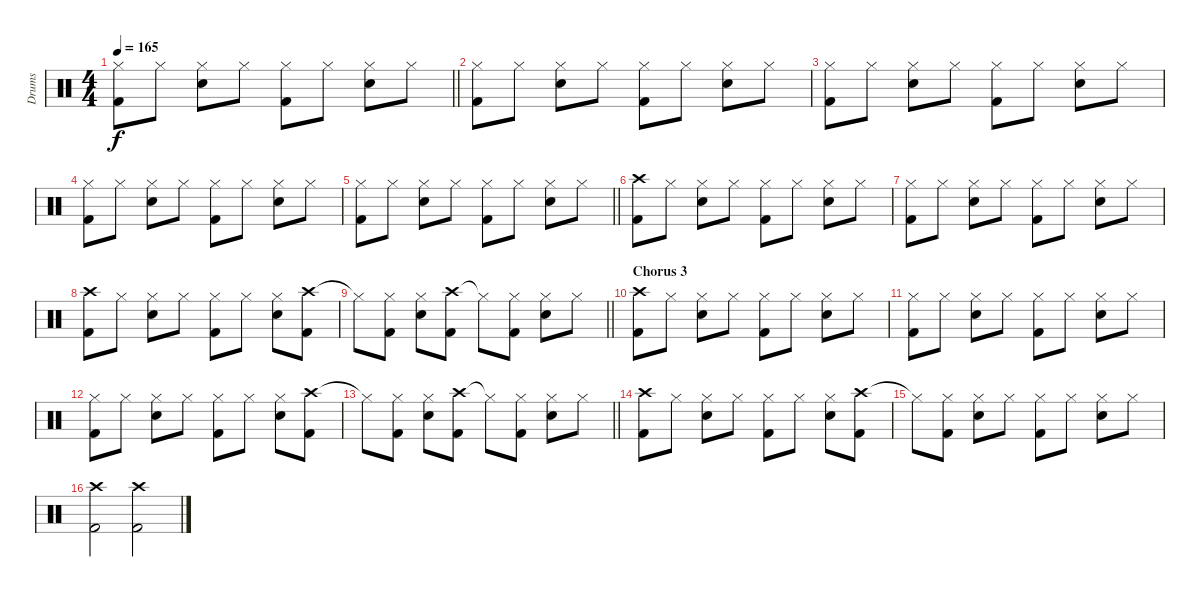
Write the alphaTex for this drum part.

\track ("Drums" "Drums") {instrument percussion}
\staff {score}
\articulation defaults
\ts (4 4)
\tempo 165
\clef neutral
\barLineRight lightlight
\ks c
("Hi-Hat (closed)" "Kick (hit) 2").8{dy f} "Hi-Hat (closed)".8 ("Hi-Hat (closed)" "Snare (hit) 2").8 "Hi-Hat (closed)".8 ("Hi-Hat (closed)" "Kick (hit) 2").8 "Hi-Hat (closed)".8 ("Hi-Hat (closed)" "Snare (hit) 2").8 "Hi-Hat (closed)".8 |
("Hi-Hat (closed)" "Kick (hit) 2").8 "Hi-Hat (closed)".8 ("Hi-Hat (closed)" "Snare (hit) 2").8 "Hi-Hat (closed)".8 ("Hi-Hat (closed)" "Kick (hit) 2").8 "Hi-Hat (closed)".8 ("Hi-Hat (closed)" "Snare (hit) 2").8 "Hi-Hat (closed)".8 |
("Hi-Hat (closed)" "Kick (hit) 2").8 "Hi-Hat (closed)".8 ("Hi-Hat (closed)" "Snare (hit) 2").8 "Hi-Hat (closed)".8 ("Hi-Hat (closed)" "Kick (hit) 2").8 "Hi-Hat (closed)".8 ("Hi-Hat (closed)" "Snare (hit) 2").8 "Hi-Hat (closed)".8 |
("Hi-Hat (closed)" "Kick (hit) 2").8 "Hi-Hat (closed)".8 ("Hi-Hat (closed)" "Snare (hit) 2").8 "Hi-Hat (closed)".8 ("Hi-Hat (closed)" "Kick (hit) 2").8 "Hi-Hat (closed)".8 ("Hi-Hat (closed)" "Snare (hit) 2").8 "Hi-Hat (closed)".8 |
\barLineRight lightlight
("Hi-Hat (closed)" "Kick (hit) 2").8 "Hi-Hat (closed)".8 ("Hi-Hat (closed)" "Snare (hit) 2").8 "Hi-Hat (closed)".8 ("Hi-Hat (closed)" "Kick (hit) 2").8 "Hi-Hat (closed)".8 ("Hi-Hat (closed)" "Snare (hit) 2").8 "Hi-Hat (closed)".8 |
("Crash high (hit)" "Kick (hit) 2").8 "Hi-Hat (closed)".8 ("Hi-Hat (closed)" "Snare (hit) 2").8 "Hi-Hat (closed)".8 ("Hi-Hat (closed)" "Kick (hit) 2").8 "Hi-Hat (closed)".8 ("Hi-Hat (closed)" "Snare (hit) 2").8 "Hi-Hat (closed)".8 |
("Hi-Hat (closed)" "Kick (hit) 2").8 "Hi-Hat (closed)".8 ("Hi-Hat (closed)" "Snare (hit) 2").8 "Hi-Hat (closed)".8 ("Hi-Hat (closed)" "Kick (hit) 2").8 "Hi-Hat (closed)".8 ("Hi-Hat (closed)" "Snare (hit) 2").8 "Hi-Hat (closed)".8 |
("Crash high (hit)" "Kick (hit) 2").8 "Hi-Hat (closed)".8 ("Hi-Hat (closed)" "Snare (hit) 2").8 "Hi-Hat (closed)".8 ("Hi-Hat (closed)" "Kick (hit) 2").8 "Hi-Hat (closed)".8 ("Hi-Hat (closed)" "Snare (hit) 2").8 ("Crash high (hit)" "Kick (hit) 2").8 |
\barLineRight lightlight "Hi-Hat (closed)"{t}.8
("Hi-Hat (closed)" "Kick (hit) 2").8 ("Hi-Hat (closed)" "Snare (hit) 2").8 ("Crash high (hit)" "Kick (hit) 2").8 "Hi-Hat (closed)"{t}.8 ("Hi-Hat (closed)" "Kick (hit) 2").8 ("Hi-Hat (closed)" "Snare (hit) 2").8 "Hi-Hat (closed)".8 |
\section ("" "Chorus 3")
("Crash high (hit)" "Kick (hit) 2").8 "Hi-Hat (closed)".8 ("Hi-Hat (closed)" "Snare (hit) 2").8 "Hi-Hat (closed)".8 ("Hi-Hat (closed)" "Kick (hit) 2").8 "Hi-Hat (closed)".8 ("Hi-Hat (closed)" "Snare (hit) 2").8 "Hi-Hat (closed)".8 |
("Hi-Hat (closed)" "Kick (hit) 2").8 "Hi-Hat (closed)".8 ("Hi-Hat (closed)" "Snare (hit) 2").8 "Hi-Hat (closed)".8 ("Hi-Hat (closed)" "Kick (hit) 2").8 "Hi-Hat (closed)".8 ("Hi-Hat (closed)" "Snare (hit) 2").8 "Hi-Hat (closed)".8 |
("Hi-Hat (closed)" "Kick (hit) 2").8 "Hi-Hat (closed)".8 ("Hi-Hat (closed)" "Snare (hit) 2").8 "Hi-Hat (closed)".8 ("Hi-Hat (closed)" "Kick (hit) 2").8 "Hi-Hat (closed)".8 ("Hi-Hat (closed)" "Snare (hit) 2").8 ("Crash high (hit)" "Kick (hit) 2").8 |
\barLineRight lightlight "Hi-Hat (closed)"{t}.8
("Hi-Hat (closed)" "Kick (hit) 2").8 ("Hi-Hat (closed)" "Snare (hit) 2").8 ("Crash high (hit)" "Kick (hit) 2").8 "Hi-Hat (closed)"{t}.8 ("Hi-Hat (closed)" "Kick (hit) 2").8 ("Hi-Hat (closed)" "Snare (hit) 2").8 "Hi-Hat (closed)".8 |
("Crash high (hit)" "Kick (hit) 2").8 "Hi-Hat (closed)".8 ("Hi-Hat (closed)" "Snare (hit) 2").8 "Hi-Hat (closed)".8 ("Hi-Hat (closed)" "Kick (hit) 2").8 "Hi-Hat (closed)".8 ("Hi-Hat (closed)" "Snare (hit) 2").8 ("Crash high (hit)" "Kick (hit) 2").8 |
"Hi-Hat (closed)"{t}.8 ("Hi-Hat (closed)" "Kick (hit) 2").8 ("Hi-Hat (closed)" "Snare (hit) 2").8 "Hi-Hat (closed)".8 ("Hi-Hat (closed)" "Kick (hit) 2").8 "Hi-Hat (closed)".8 ("Hi-Hat (closed)" "Snare (hit) 2").8 "Hi-Hat (closed)".8 |
("Crash high (hit)" "Kick (hit) 2").2 ("Crash high (hit)" "Kick (hit) 2").2
